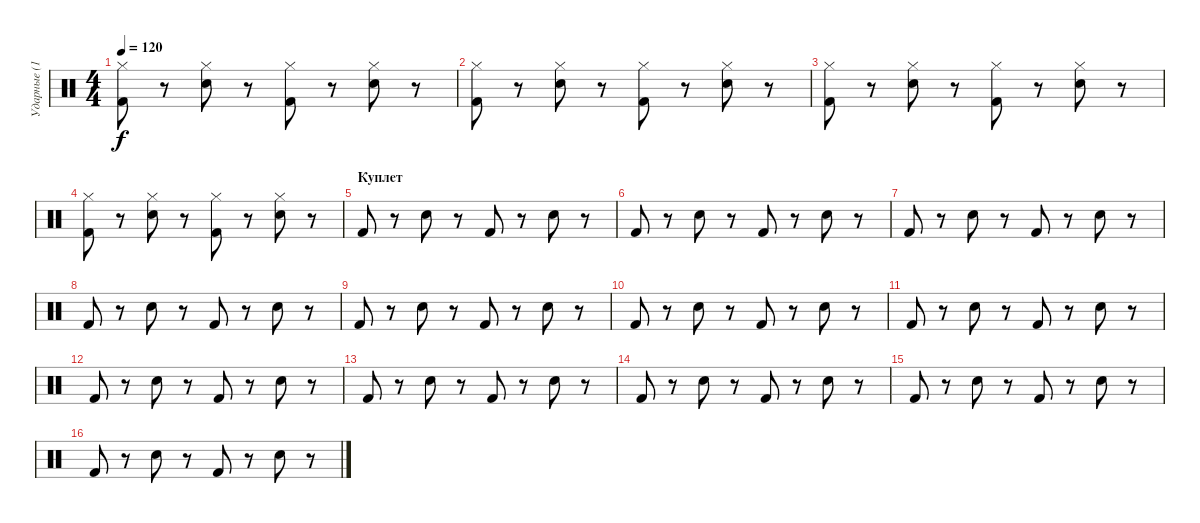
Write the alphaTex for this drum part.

\track ("Ударные (12,36-залп) " "Ударные (1") {instrument percussion}
\staff {score}
\articulation defaults
\ts (4 4)
\tempo 120
\clef neutral
\ks aminor
("Kick (hit) 2" "Hi-Hat (closed)").8{dy f} r.8 ("Snare (hit) 2" "Hi-Hat (closed)").8 r.8 ("Kick (hit) 2" "Hi-Hat (closed)").8 r.8 ("Snare (hit) 2" "Hi-Hat (closed)").8 r.8 |
("Kick (hit) 2" "Hi-Hat (closed)").8 r.8 ("Snare (hit) 2" "Hi-Hat (closed)").8 r.8 ("Kick (hit) 2" "Hi-Hat (closed)").8 r.8 ("Snare (hit) 2" "Hi-Hat (closed)").8 r.8 |
("Kick (hit) 2" "Hi-Hat (closed)").8 r.8 ("Snare (hit) 2" "Hi-Hat (closed)").8 r.8 ("Kick (hit) 2" "Hi-Hat (closed)").8 r.8 ("Snare (hit) 2" "Hi-Hat (closed)").8 r.8 |
("Kick (hit) 2" "Hi-Hat (closed)").8 r.8 ("Snare (hit) 2" "Hi-Hat (closed)").8 r.8 ("Kick (hit) 2" "Hi-Hat (closed)").8 r.8 ("Snare (hit) 2" "Hi-Hat (closed)").8 r.8 |
\section ("" "Куплет")
"Kick (hit) 2".8 r.8 "Snare (hit) 2".8 r.8 "Kick (hit) 2".8 r.8 "Snare (hit) 2".8 r.8 |
"Kick (hit) 2".8 r.8 "Snare (hit) 2".8 r.8 "Kick (hit) 2".8 r.8 "Snare (hit) 2".8 r.8 |
"Kick (hit) 2".8 r.8 "Snare (hit) 2".8 r.8 "Kick (hit) 2".8 r.8 "Snare (hit) 2".8 r.8 |
"Kick (hit) 2".8 r.8 "Snare (hit) 2".8 r.8 "Kick (hit) 2".8 r.8 "Snare (hit) 2".8 r.8 |
"Kick (hit) 2".8 r.8 "Snare (hit) 2".8 r.8 "Kick (hit) 2".8 r.8 "Snare (hit) 2".8 r.8 |
"Kick (hit) 2".8 r.8 "Snare (hit) 2".8 r.8 "Kick (hit) 2".8 r.8 "Snare (hit) 2".8 r.8 |
"Kick (hit) 2".8 r.8 "Snare (hit) 2".8 r.8 "Kick (hit) 2".8 r.8 "Snare (hit) 2".8 r.8 |
"Kick (hit) 2".8 r.8 "Snare (hit) 2".8 r.8 "Kick (hit) 2".8 r.8 "Snare (hit) 2".8 r.8 |
"Kick (hit) 2".8 r.8 "Snare (hit) 2".8 r.8 "Kick (hit) 2".8 r.8 "Snare (hit) 2".8 r.8 |
"Kick (hit) 2".8 r.8 "Snare (hit) 2".8 r.8 "Kick (hit) 2".8 r.8 "Snare (hit) 2".8 r.8 |
"Kick (hit) 2".8 r.8 "Snare (hit) 2".8 r.8 "Kick (hit) 2".8 r.8 "Snare (hit) 2".8 r.8 |
"Kick (hit) 2".8 r.8 "Snare (hit) 2".8 r.8 "Kick (hit) 2".8 r.8 "Snare (hit) 2".8 r.8
